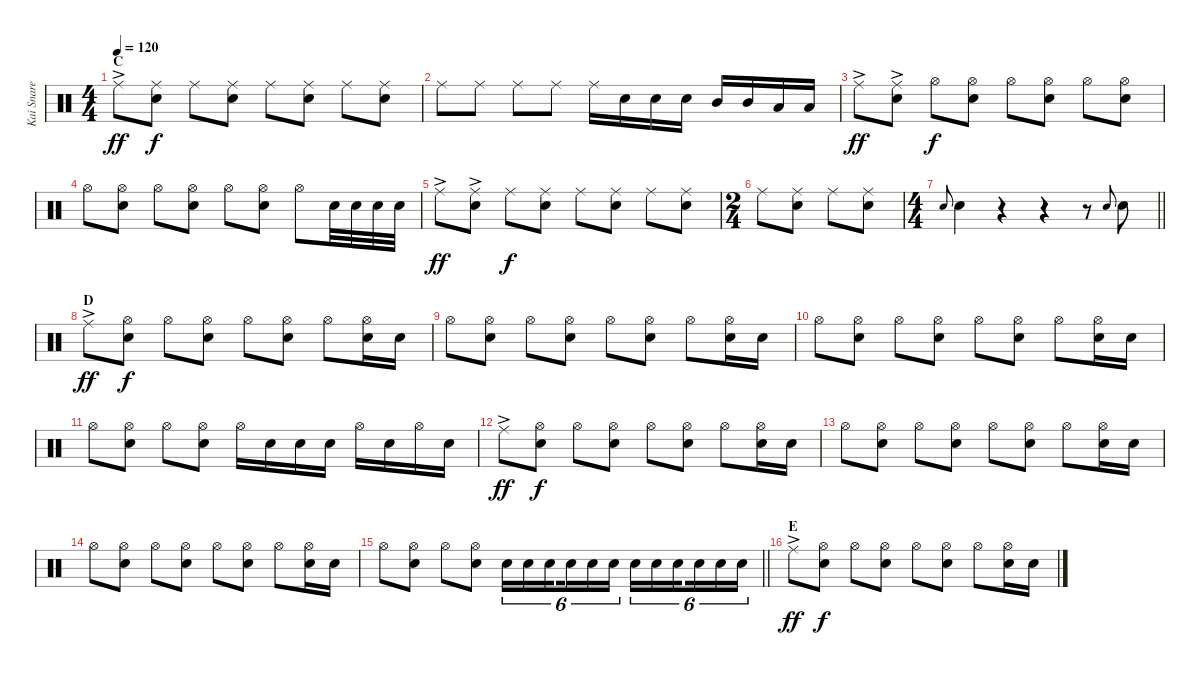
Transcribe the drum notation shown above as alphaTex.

\track ("Kai Snare" "Kai Snare") {instrument percussion}
\staff {score}
\articulation defaults
\ts (4 4)
\section ("" "C")
\tempo 120
\clef neutral
\ks c "Ride (middle)"{ac}.8{dy ff}
("Ride (middle)" "Snare (hit) 2").8{dy f} "Ride (middle)".8 ("Ride (middle)" "Snare (hit) 2").8 "Ride (middle)".8 ("Ride (middle)" "Snare (hit) 2").8 "Ride (middle)".8 ("Ride (middle)" "Snare (hit) 2").8 |
"Ride (middle)".8 "Ride (middle)".8 "Ride (middle)".8 "Ride (middle)".8 "Ride (middle)".16 "Snare (hit) 2".16 "Snare (hit) 2".16 "Snare (hit) 2".16 "Mid Tom (hit)".16 "Mid Tom (hit)".16 "Low Tom (hit)".16 "Low Tom (hit)".16 |
"Ride (middle)"{ac}.8{dy ff} ("Ride (middle)"{ac} "Snare (hit) 2").8 "Hi-Hat (open)".8{dy f} ("Hi-Hat (open)" "Snare (hit) 2").8 "Hi-Hat (open)".8 ("Hi-Hat (open)" "Snare (hit) 2").8 "Hi-Hat (open)".8 ("Hi-Hat (open)" "Snare (hit) 2").8 |
"Hi-Hat (open)".8 ("Hi-Hat (open)" "Snare (hit) 2").8 "Hi-Hat (open)".8 ("Hi-Hat (open)" "Snare (hit) 2").8 "Hi-Hat (open)".8 ("Hi-Hat (open)" "Snare (hit) 2").8 "Hi-Hat (open)".8 "Snare (hit) 2".32 "Snare (hit) 2".32 "Snare (hit) 2".32 "Snare (hit) 2".32 |
"Ride (middle)"{ac}.8{dy ff} ("Ride (middle)"{ac} "Snare (hit) 2").8 "Ride (middle)".8{dy f} ("Ride (middle)" "Snare (hit) 2").8 "Ride (middle)".8 ("Ride (middle)" "Snare (hit) 2").8 "Ride (middle)".8 ("Ride (middle)" "Snare (hit) 2").8 |
\ts (2 4)
"Ride (middle)".8 ("Ride (middle)" "Snare (hit) 2").8 "Ride (middle)".8 ("Ride (middle)" "Snare (hit) 2").8 |
\ts (4 4)
\barLineRight lightlight "Snare (hit) 2".8{gr onbeat} "Snare (hit) 2".4
r.4 r.4 r.8 "Snare (hit) 2".8{gr onbeat} "Snare (hit) 2".8 |
\section ("" "D")
"Ride (middle)"{ac}.8{dy ff} ("Hi-Hat (open)" "Snare (hit) 2").8{dy f} "Hi-Hat (open)".8 ("Hi-Hat (open)" "Snare (hit) 2").8 "Hi-Hat (open)".8 ("Hi-Hat (open)" "Snare (hit) 2").8 "Hi-Hat (open)".8 ("Hi-Hat (open)" "Snare (hit) 2").16 "Snare (hit) 2".16 |
"Hi-Hat (open)".8 ("Hi-Hat (open)" "Snare (hit) 2").8 "Hi-Hat (open)".8 ("Hi-Hat (open)" "Snare (hit) 2").8 "Hi-Hat (open)".8 ("Hi-Hat (open)" "Snare (hit) 2").8 "Hi-Hat (open)".8 ("Hi-Hat (open)" "Snare (hit) 2").16 "Snare (hit) 2".16 |
"Hi-Hat (open)".8 ("Hi-Hat (open)" "Snare (hit) 2").8 "Hi-Hat (open)".8 ("Hi-Hat (open)" "Snare (hit) 2").8 "Hi-Hat (open)".8 ("Hi-Hat (open)" "Snare (hit) 2").8 "Hi-Hat (open)".8 ("Hi-Hat (open)" "Snare (hit) 2").16 "Snare (hit) 2".16 |
"Hi-Hat (open)".8 ("Hi-Hat (open)" "Snare (hit) 2").8 "Hi-Hat (open)".8 ("Hi-Hat (open)" "Snare (hit) 2").8 "Hi-Hat (open)".16 "Snare (hit) 2".16 "Snare (hit) 2".16 "Snare (hit) 2".16 "Hi-Hat (open)".16 "Snare (hit) 2".16 "Hi-Hat (open)".16 "Snare (hit) 2".16 |
"Ride (middle)"{ac}.8{dy ff} ("Hi-Hat (open)" "Snare (hit) 2").8{dy f} "Hi-Hat (open)".8 ("Hi-Hat (open)" "Snare (hit) 2").8 "Hi-Hat (open)".8 ("Hi-Hat (open)" "Snare (hit) 2").8 "Hi-Hat (open)".8 ("Hi-Hat (open)" "Snare (hit) 2").16 "Snare (hit) 2".16 |
"Hi-Hat (open)".8 ("Hi-Hat (open)" "Snare (hit) 2").8 "Hi-Hat (open)".8 ("Hi-Hat (open)" "Snare (hit) 2").8 "Hi-Hat (open)".8 ("Hi-Hat (open)" "Snare (hit) 2").8 "Hi-Hat (open)".8 ("Hi-Hat (open)" "Snare (hit) 2").16 "Snare (hit) 2".16 |
"Hi-Hat (open)".8 ("Hi-Hat (open)" "Snare (hit) 2").8 "Hi-Hat (open)".8 ("Hi-Hat (open)" "Snare (hit) 2").8 "Hi-Hat (open)".8 ("Hi-Hat (open)" "Snare (hit) 2").8 "Hi-Hat (open)".8 ("Hi-Hat (open)" "Snare (hit) 2").16 "Snare (hit) 2".16 |
\barLineRight lightlight "Hi-Hat (open)".8
("Hi-Hat (open)" "Snare (hit) 2").8 "Hi-Hat (open)".8 ("Hi-Hat (open)" "Snare (hit) 2").8 "Snare (hit) 2".16{tu (6 4)} "Snare (hit) 2".16{tu (6 4)} "Snare (hit) 2".16{tu (6 4) beam splitsecondary} "Snare (hit) 2".16{tu (6 4)} "Snare (hit) 2".16{tu (6 4)} "Snare (hit) 2".16{tu (6 4)} "Snare (hit) 2".16{tu (6 4)} "Snare (hit) 2".16{tu (6 4)} "Snare (hit) 2".16{tu (6 4) beam splitsecondary} "Snare (hit) 2".16{tu (6 4)} "Snare (hit) 2".16{tu (6 4)} "Snare (hit) 2".16{tu (6 4)} |
\section ("" "E")
"Ride (middle)"{ac}.8{dy ff} ("Hi-Hat (open)" "Snare (hit) 2").8{dy f} "Hi-Hat (open)".8 ("Hi-Hat (open)" "Snare (hit) 2").8 "Hi-Hat (open)".8 ("Hi-Hat (open)" "Snare (hit) 2").8 "Hi-Hat (open)".8 ("Hi-Hat (open)" "Snare (hit) 2").16 "Snare (hit) 2".16
